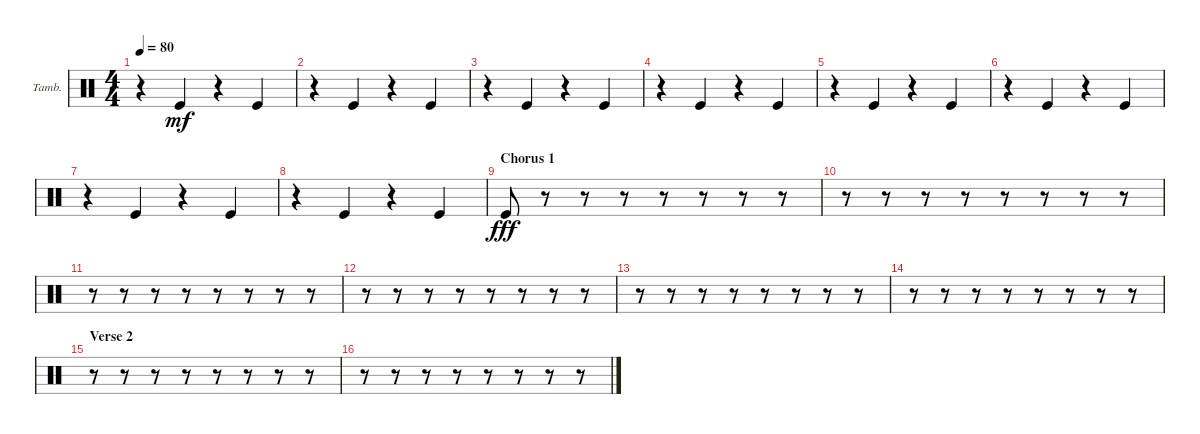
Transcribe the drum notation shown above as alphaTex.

\bracketExtendMode groupsimilarinstruments
\firstSystemTrackNameOrientation horizontal
\otherSystemsTrackNameOrientation horizontal
\chordDiagramsInScore
\track ("Tambourine" "Tamb.") {instrument percussion}
\staff {score}
\articulation defaults
\ts (4 4)
\tempo 80
\clef neutral
\ks c
r.4{dy mf} "Kick (hit)".4 r.4 "Kick (hit)".4 |
r.4 "Kick (hit)".4 r.4 "Kick (hit)".4 |
r.4 "Kick (hit)".4 r.4 "Kick (hit)".4 |
r.4 "Kick (hit)".4 r.4 "Kick (hit)".4 |
r.4 "Kick (hit)".4 r.4 "Kick (hit)".4 |
r.4 "Kick (hit)".4 r.4 "Kick (hit)".4 |
r.4 "Kick (hit)".4 r.4 "Kick (hit)".4 |
r.4 "Kick (hit)".4 r.4 "Kick (hit)".4 |
\section ("" "Chorus 1")
"Kick (hit)".8{dy fff} r.8 r.8 r.8 r.8 r.8 r.8 r.8 |
r.8 r.8 r.8 r.8 r.8 r.8 r.8 r.8 |
r.8 r.8 r.8 r.8 r.8 r.8 r.8 r.8 |
r.8 r.8 r.8 r.8 r.8 r.8 r.8 r.8 |
r.8 r.8 r.8 r.8 r.8 r.8 r.8 r.8 |
r.8 r.8 r.8 r.8 r.8 r.8 r.8 r.8 |
\section ("" "Verse 2")
r.8 r.8 r.8 r.8 r.8 r.8 r.8 r.8 |
r.8 r.8 r.8 r.8 r.8 r.8 r.8 r.8
